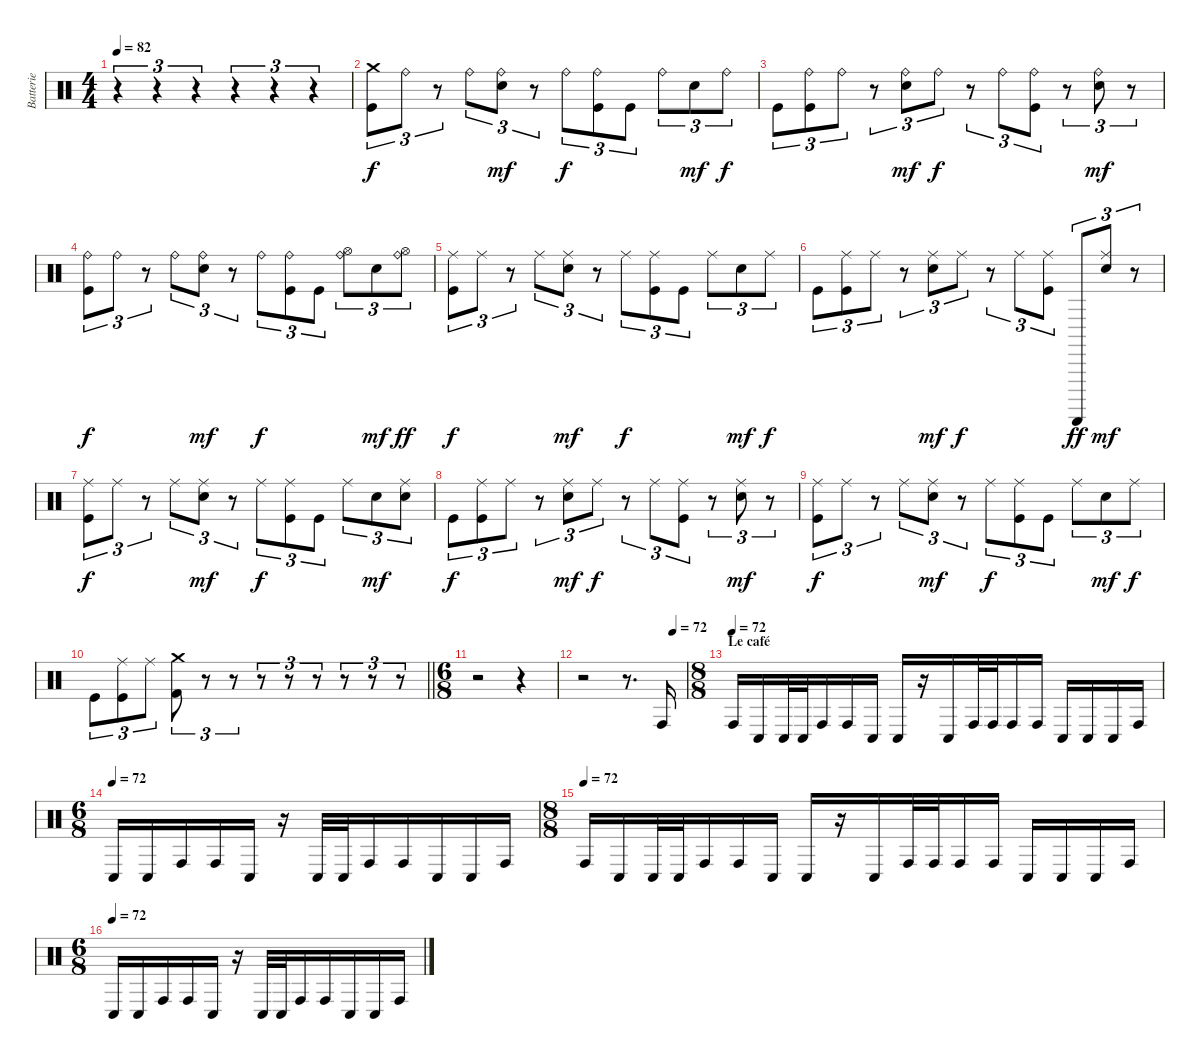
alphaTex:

\track ("Batterie" "Batterie") {instrument percussion}
\staff {score}
\articulation defaults
\ts (4 4)
\tempo 82
\clef neutral
\ks c
r.4{tu (3 2) dy mf} r.4{tu (3 2)} r.4{tu (3 2)} r.4{tu (3 2)} r.4{tu (3 2)} r.4{tu (3 2)} |
("Crash medium (hit)" "Kick (hit)").8{tu (3 2) dy f} "Ride (bell)".8{tu (3 2)} r.8{tu (3 2)} "Ride (bell)".8{tu (3 2)} ("Ride (bell)" "Snare (hit) 2").8{tu (3 2) dy mf} r.8{tu (3 2)} "Ride (bell)".8{tu (3 2) dy f} ("Ride (bell)" "Kick (hit)").8{tu (3 2)} "Kick (hit)".8{tu (3 2)} "Ride (bell)".8{tu (3 2)} "Snare (hit) 2".8{tu (3 2) dy mf} "Ride (bell)".8{tu (3 2) dy f} |
"Kick (hit)".8{tu (3 2)} ("Ride (bell)" "Kick (hit)").8{tu (3 2)} "Ride (bell)".8{tu (3 2)} r.8{tu (3 2)} ("Ride (bell)" "Snare (hit) 2").8{tu (3 2) dy mf} "Ride (bell)".8{tu (3 2) dy f} r.8{tu (3 2)} "Ride (bell)".8{tu (3 2)} ("Ride (bell)" "Kick (hit)").8{tu (3 2)} r.8{tu (3 2)} ("Ride (bell)" "Snare (hit) 2").8{tu (3 2) dy mf} r.8{tu (3 2)} |
("Ride (bell)" "Kick (hit)").8{tu (3 2) dy f} "Ride (bell)".8{tu (3 2)} r.8{tu (3 2)} "Ride (bell)".8{tu (3 2)} ("Ride (bell)" "Snare (hit) 2").8{tu (3 2) dy mf} r.8{tu (3 2)} "Ride (bell)".8{tu (3 2) dy f} ("Ride (bell)" "Kick (hit)").8{tu (3 2)} "Kick (hit)".8{tu (3 2)} ("Hi-Hat (open)" "Ride (bell)").8{tu (3 2)} "Snare (hit) 2".8{tu (3 2) dy mf} ("Hi-Hat (open)" "Ride (bell)").8{tu (3 2) dy ff} |
("Ride (middle)" "Kick (hit)").8{tu (3 2) dy f} "Ride (middle)".8{tu (3 2)} r.8{tu (3 2)} "Ride (middle)".8{tu (3 2)} ("Ride (middle)" "Snare (hit) 2").8{tu (3 2) dy mf} r.8{tu (3 2)} "Ride (middle)".8{tu (3 2) dy f} ("Ride (middle)" "Kick (hit)").8{tu (3 2)} "Kick (hit)".8{tu (3 2)} "Ride (middle)".8{tu (3 2)} "Snare (hit) 2".8{tu (3 2) dy mf} "Ride (middle)".8{tu (3 2) dy f} |
"Kick (hit)".8{tu (3 2)} ("Ride (middle)" "Kick (hit)").8{tu (3 2)} "Ride (middle)".8{tu (3 2)} r.8{tu (3 2)} ("Ride (middle)" "Snare (hit) 2").8{tu (3 2) dy mf} "Ride (middle)".8{tu (3 2) dy f} r.8{tu (3 2)} "Ride (middle)".8{tu (3 2)} ("Ride (middle)" "Kick (hit)").8{tu (3 2)} "Guiro (scrap-return)".8{tu (3 2) dy ff} ("Ride (middle)" "Snare (hit) 2").8{tu (3 2) dy mf} r.8{tu (3 2)} |
("Ride (middle)" "Kick (hit)").8{tu (3 2) dy f} "Ride (middle)".8{tu (3 2)} r.8{tu (3 2)} "Ride (middle)".8{tu (3 2)} ("Ride (middle)" "Snare (hit) 2").8{tu (3 2) dy mf} r.8{tu (3 2)} "Ride (middle)".8{tu (3 2) dy f} ("Ride (middle)" "Kick (hit)").8{tu (3 2)} "Kick (hit)".8{tu (3 2)} "Ride (middle)".8{tu (3 2)} "Snare (hit) 2".8{tu (3 2) dy mf} ("Ride (middle)" "Snare (hit) 2").8{tu (3 2)} |
"Kick (hit)".8{tu (3 2) dy f} ("Ride (middle)" "Kick (hit)").8{tu (3 2)} "Ride (middle)".8{tu (3 2)} r.8{tu (3 2)} ("Ride (middle)" "Snare (hit) 2").8{tu (3 2) dy mf} "Ride (middle)".8{tu (3 2) dy f} r.8{tu (3 2)} "Ride (middle)".8{tu (3 2)} ("Ride (middle)" "Kick (hit)").8{tu (3 2)} r.8{tu (3 2)} ("Ride (middle)" "Snare (hit) 2").8{tu (3 2) dy mf} r.8{tu (3 2)} |
("Ride (middle)" "Kick (hit)").8{tu (3 2) dy f} "Ride (middle)".8{tu (3 2)} r.8{tu (3 2)} "Ride (middle)".8{tu (3 2)} ("Ride (middle)" "Snare (hit) 2").8{tu (3 2) dy mf} r.8{tu (3 2)} "Ride (middle)".8{tu (3 2) dy f} ("Ride (middle)" "Kick (hit)").8{tu (3 2)} "Kick (hit)".8{tu (3 2)} "Ride (middle)".8{tu (3 2)} "Snare (hit) 2".8{tu (3 2) dy mf} "Ride (middle)".8{tu (3 2) dy f} |
\barLineRight lightlight "Kick (hit)".8{tu (3 2)}
("Ride (middle)" "Kick (hit)").8{tu (3 2)} "Ride (middle)".8{tu (3 2)} ("Crash medium (hit)" "Kick (hit) 2").8{tu (3 2)} r.8{tu (3 2)} r.8{tu (3 2)} r.8{tu (3 2)} r.8{tu (3 2)} r.8{tu (3 2)} r.8{tu (3 2)} r.8{tu (3 2)} r.8{tu (3 2)} |
\ts (6 8)
r.2 r.4 |
\tempo (72 0.875)
r.2 r.8{d} "Conga high (hit)".16 |
\ts (8 8)
\section ("" "Le café")
\tempo (72)
"Conga high (hit)".16 "Conga low (hit)".16 "Conga low (hit)".32 "Conga low (hit)".32 "Conga high (hit)".16 "Conga high (hit)".16 "Conga low (hit)".16 "Conga low (hit)".16 r.16 "Conga low (hit)".16 "Conga high (hit)".32 "Conga high (hit)".32 "Conga high (hit)".16 "Conga high (hit)".16 "Conga low (hit)".16 "Conga low (hit)".16 "Conga low (hit)".16 "Conga high (hit)".16 |
\ts (6 8)
\tempo (72)
"Conga low (hit)".16 "Conga low (hit)".16 "Conga high (hit)".16 "Conga high (hit)".16 "Conga low (hit)".16 r.16 "Conga low (hit)".32 "Conga low (hit)".32 "Conga high (hit)".16 "Conga high (hit)".16 "Conga low (hit)".16 "Conga low (hit)".16 "Conga high (hit)".16 |
\ts (8 8)
\tempo (72)
"Conga high (hit)".16 "Conga low (hit)".16 "Conga low (hit)".32 "Conga low (hit)".32 "Conga high (hit)".16 "Conga high (hit)".16 "Conga low (hit)".16 "Conga low (hit)".16 r.16 "Conga low (hit)".16 "Conga high (hit)".32 "Conga high (hit)".32 "Conga high (hit)".16 "Conga high (hit)".16 "Conga low (hit)".16 "Conga low (hit)".16 "Conga low (hit)".16 "Conga high (hit)".16 |
\ts (6 8)
\tempo (72)
"Conga low (hit)".16 "Conga low (hit)".16 "Conga high (hit)".16 "Conga high (hit)".16 "Conga low (hit)".16 r.16 "Conga low (hit)".32 "Conga low (hit)".32 "Conga high (hit)".16 "Conga high (hit)".16 "Conga low (hit)".16 "Conga low (hit)".16 "Conga high (hit)".16
